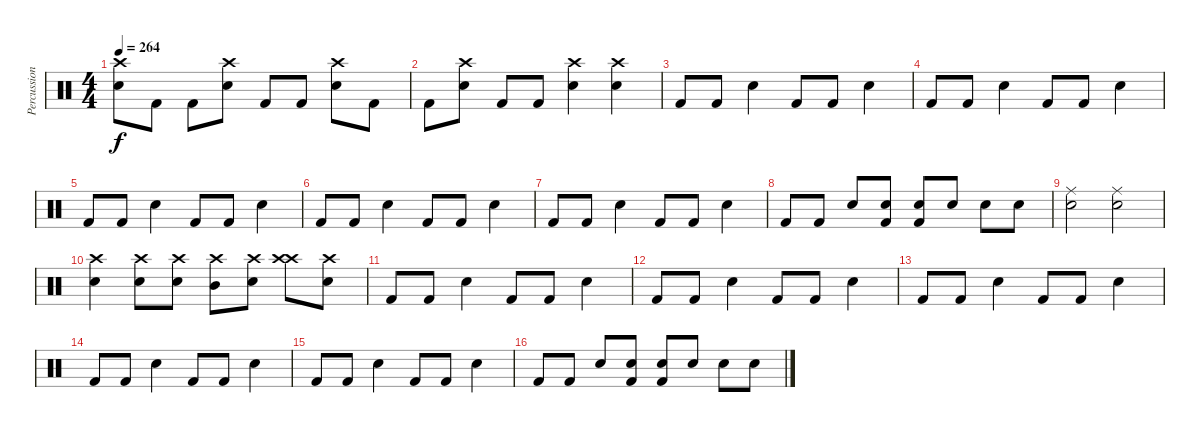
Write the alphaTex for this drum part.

\track ("Percussion" "Percussion") {instrument percussion}
\staff {score}
\articulation defaults
\ts (4 4)
\tempo 264
\clef neutral
\ks c
("Crash high (hit)" "Snare (hit) 2").8{dy f} "Kick (hit) 2".8 "Kick (hit) 2".8 ("Crash high (hit)" "Snare (hit) 2").8 "Kick (hit) 2".8 "Kick (hit) 2".8 ("Crash high (hit)" "Snare (hit) 2").8 "Kick (hit) 2".8 |
"Kick (hit) 2".8 ("Crash high (hit)" "Snare (hit) 2").8 "Kick (hit) 2".8 "Kick (hit) 2".8 ("Crash high (hit)" "Snare (hit) 2").4 ("Crash high (hit)" "Snare (hit) 2").4 |
"Kick (hit) 2".8 "Kick (hit) 2".8 "Snare (hit) 2".4 "Kick (hit) 2".8 "Kick (hit) 2".8 "Snare (hit) 2".4 |
"Kick (hit) 2".8 "Kick (hit) 2".8 "Snare (hit) 2".4 "Kick (hit) 2".8 "Kick (hit) 2".8 "Snare (hit) 2".4 |
"Kick (hit) 2".8 "Kick (hit) 2".8 "Snare (hit) 2".4 "Kick (hit) 2".8 "Kick (hit) 2".8 "Snare (hit) 2".4 |
"Kick (hit) 2".8 "Kick (hit) 2".8 "Snare (hit) 2".4 "Kick (hit) 2".8 "Kick (hit) 2".8 "Snare (hit) 2".4 |
"Kick (hit) 2".8 "Kick (hit) 2".8 "Snare (hit) 2".4 "Kick (hit) 2".8 "Kick (hit) 2".8 "Snare (hit) 2".4 |
"Kick (hit) 2".8 "Kick (hit) 2".8 "Snare (hit) 2".8 ("Kick (hit) 2" "Snare (hit) 2").8 ("Kick (hit) 2" "Snare (hit) 2").8 "Snare (hit) 2".8 "Snare (hit) 2".8 "Snare (hit) 2".8 |
("Ride (middle)" "Snare (hit) 2").2 ("Ride (middle)" "Snare (hit) 2").2 |
("Crash high (hit)" "Snare (hit) 2").4 ("Crash high (hit)" "Snare (hit) 2").8 ("Crash high (hit)" "Snare (hit) 2").8 ("Crash high (hit)" "Mid Tom (hit)").8 ("Crash high (hit)" "Snare (hit) 2").8 ("Crash high (hit)" "Crash high (hit)").8 ("Crash high (hit)" "Snare (hit) 2").8 |
"Kick (hit) 2".8 "Kick (hit) 2".8 "Snare (hit) 2".4 "Kick (hit) 2".8 "Kick (hit) 2".8 "Snare (hit) 2".4 |
"Kick (hit) 2".8 "Kick (hit) 2".8 "Snare (hit) 2".4 "Kick (hit) 2".8 "Kick (hit) 2".8 "Snare (hit) 2".4 |
"Kick (hit) 2".8 "Kick (hit) 2".8 "Snare (hit) 2".4 "Kick (hit) 2".8 "Kick (hit) 2".8 "Snare (hit) 2".4 |
"Kick (hit) 2".8 "Kick (hit) 2".8 "Snare (hit) 2".4 "Kick (hit) 2".8 "Kick (hit) 2".8 "Snare (hit) 2".4 |
"Kick (hit) 2".8 "Kick (hit) 2".8 "Snare (hit) 2".4 "Kick (hit) 2".8 "Kick (hit) 2".8 "Snare (hit) 2".4 |
"Kick (hit) 2".8 "Kick (hit) 2".8 "Snare (hit) 2".8 ("Kick (hit) 2" "Snare (hit) 2").8 ("Kick (hit) 2" "Snare (hit) 2").8 "Snare (hit) 2".8 "Snare (hit) 2".8 "Snare (hit) 2".8
